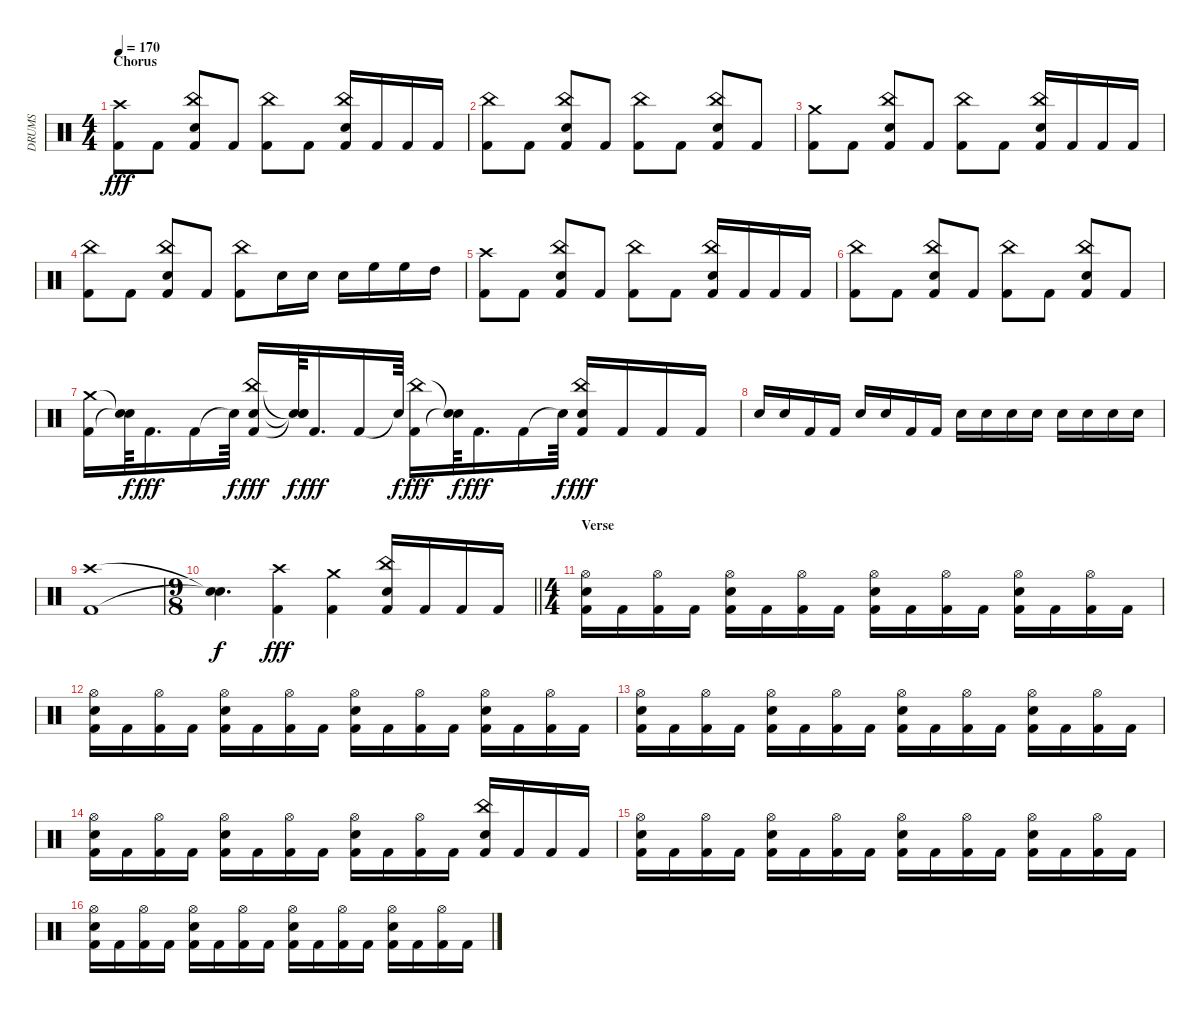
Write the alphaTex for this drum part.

\track ("DRUMS" "DRUMS") {instrument percussion}
\staff {score}
\articulation defaults
\ts (4 4)
\section ("" "Chorus")
\tempo 170
\clef neutral
\ks c
("Kick (hit) 2" "Crash high (hit)").8{dy fff} "Kick (hit) 2".8 ("Kick (hit) 2" "China (hit)" "Snare (hit) 2").8 "Kick (hit) 2".8 ("China (hit)" "Kick (hit) 2").8 "Kick (hit) 2".8 ("Kick (hit) 2" "China (hit)" "Snare (hit) 2").16 "Kick (hit) 2".16 "Kick (hit) 2".16 "Kick (hit) 2".16 |
("China (hit)" "Kick (hit) 2").8 "Kick (hit) 2".8 ("Kick (hit) 2" "China (hit)" "Snare (hit) 2").8 "Kick (hit) 2".8 ("China (hit)" "Kick (hit) 2").8 "Kick (hit) 2".8 ("Kick (hit) 2" "China (hit)" "Snare (hit) 2").8 "Kick (hit) 2".8 |
("Crash medium (hit)" "Kick (hit) 2").8 "Kick (hit) 2".8 ("China (hit)" "Snare (hit) 2" "Kick (hit) 2").8 "Kick (hit) 2".8 ("China (hit)" "Kick (hit) 2").8 "Kick (hit) 2".8 ("China (hit)" "Snare (hit) 2" "Kick (hit) 2").16 "Kick (hit) 2".16 "Kick (hit) 2".16 "Kick (hit) 2".16 |
("Kick (hit) 2" "China (hit)").8 "Kick (hit) 2".8 ("Kick (hit) 2" "Snare (hit) 2" "China (hit)").8 "Kick (hit) 2".8 ("Kick (hit) 2" "China (hit)").8 "Snare (hit) 2".16 "Snare (hit) 2".16 "Snare (hit) 2".16 "High Floor Tom (hit)".16 "High Floor Tom (hit)".16 "High Tom (hit)".16 |
("Crash high (hit)" "Kick (hit) 2").8 "Kick (hit) 2".8 ("Snare (hit) 2" "Kick (hit) 2" "China (hit)").8 "Kick (hit) 2".8 ("Kick (hit) 2" "China (hit)").8 "Kick (hit) 2".8 ("China (hit)" "Kick (hit) 2" "Snare (hit) 2").16 "Kick (hit) 2".16 "Kick (hit) 2".16 "Kick (hit) 2".16 |
("Kick (hit) 2" "China (hit)").8 "Kick (hit) 2".8 ("Snare (hit) 2" "Kick (hit) 2" "China (hit)").8 "Kick (hit) 2".8 ("China (hit)" "Kick (hit) 2").8 "Kick (hit) 2".8 ("China (hit)" "Kick (hit) 2" "Snare (hit) 2").8 "Kick (hit) 2".8 |
("Kick (hit) 2" "Crash medium (hit)").16 ("Snare (hit)"{t} "Snare (hit)"{t}).64{dy f} "Kick (hit) 2".16{d dy fff} "Kick (hit) 2".16 "Snare (hit)"{t}.64{dy f} ("China (hit)" "Snare (hit) 2" "Kick (hit) 2").16{dy fff} ("Snare (hit)"{t} "Snare (hit)"{t} "Snare (hit)"{t}).64{dy f} "Kick (hit) 2".16{d dy fff} "Kick (hit) 2".16 "Snare (hit)"{t}.64{dy f} ("China (hit)" "Kick (hit) 2").16{dy fff} ("Snare (hit)"{t} "Snare (hit)"{t}).64{dy f} "Kick (hit) 2".16{d dy fff} "Kick (hit) 2".16 "Snare (hit)"{t}.64{dy f} ("China (hit)" "Snare (hit) 2" "Kick (hit) 2").16{dy fff} "Kick (hit) 2".16 "Kick (hit) 2".16 "Kick (hit) 2".16 |
"Snare (hit) 2".16 "Snare (hit) 2".16 "Kick (hit) 2".16 "Kick (hit) 2".16 "Snare (hit) 2".16 "Snare (hit) 2".16 "Kick (hit) 2".16 "Kick (hit) 2".16 "Snare (hit) 2".16 "Snare (hit) 2".16 "Snare (hit) 2".16 "Snare (hit) 2".16 "Snare (hit) 2".16 "Snare (hit) 2".16 "Snare (hit) 2".16 "Snare (hit) 2".16 |
("Kick (hit) 2" "Crash high (hit)").1 |
\ts (9 8)
\barLineRight lightlight
("Snare (hit)"{t} "Snare (hit)"{t}).4{d dy f} ("Crash high (hit)" "Kick (hit) 2").4{dy fff} ("Kick (hit) 2" "Crash medium (hit)").4 ("Snare (hit) 2" "Kick (hit) 2" "China (hit)").16 "Kick (hit) 2".16 "Kick (hit) 2".16 "Kick (hit) 2".16 |
\ts (4 4)
\section ("" "Verse")
("Kick (hit) 2" "Snare (hit) 2" "Hi-Hat (open)").16 "Kick (hit) 2".16 ("Hi-Hat (open)" "Kick (hit) 2").16 "Kick (hit) 2".16 ("Hi-Hat (open)" "Snare (hit) 2" "Kick (hit) 2").16 "Kick (hit) 2".16 ("Hi-Hat (open)" "Kick (hit) 2").16 "Kick (hit) 2".16 ("Hi-Hat (open)" "Kick (hit) 2" "Snare (hit) 2").16 "Kick (hit) 2".16 ("Hi-Hat (open)" "Kick (hit) 2").16 "Kick (hit) 2".16 ("Kick (hit) 2" "Hi-Hat (open)" "Snare (hit) 2").16 "Kick (hit) 2".16 ("Hi-Hat (open)" "Kick (hit) 2").16 "Kick (hit) 2".16 |
("Kick (hit) 2" "Hi-Hat (open)" "Snare (hit) 2").16 "Kick (hit) 2".16 ("Hi-Hat (open)" "Kick (hit) 2").16 "Kick (hit) 2".16 ("Kick (hit) 2" "Snare (hit) 2" "Hi-Hat (open)").16 "Kick (hit) 2".16 ("Hi-Hat (open)" "Kick (hit) 2").16 "Kick (hit) 2".16 ("Snare (hit) 2" "Kick (hit) 2" "Hi-Hat (open)").16 "Kick (hit) 2".16 ("Hi-Hat (open)" "Kick (hit) 2").16 "Kick (hit) 2".16 ("Hi-Hat (open)" "Kick (hit) 2" "Snare (hit) 2").16 "Kick (hit) 2".16 ("Kick (hit) 2" "Hi-Hat (open)").16 "Kick (hit) 2".16 |
("Kick (hit) 2" "Snare (hit) 2" "Hi-Hat (open)").16 "Kick (hit) 2".16 ("Kick (hit) 2" "Hi-Hat (open)").16 "Kick (hit) 2".16 ("Snare (hit) 2" "Hi-Hat (open)" "Kick (hit) 2").16 "Kick (hit) 2".16 ("Kick (hit) 2" "Hi-Hat (open)").16 "Kick (hit) 2".16 ("Snare (hit) 2" "Kick (hit) 2" "Hi-Hat (open)").16 "Kick (hit) 2".16 ("Kick (hit) 2" "Hi-Hat (open)").16 "Kick (hit) 2".16 ("Kick (hit) 2" "Snare (hit) 2" "Hi-Hat (open)").16 "Kick (hit) 2".16 ("Hi-Hat (open)" "Kick (hit) 2").16 "Kick (hit) 2".16 |
("Kick (hit) 2" "Hi-Hat (open)" "Snare (hit) 2").16 "Kick (hit) 2".16 ("Kick (hit) 2" "Hi-Hat (open)").16 "Kick (hit) 2".16 ("Snare (hit) 2" "Kick (hit) 2" "Hi-Hat (open)").16 "Kick (hit) 2".16 ("Kick (hit) 2" "Hi-Hat (open)").16 "Kick (hit) 2".16 ("Kick (hit) 2" "Hi-Hat (open)" "Snare (hit) 2").16 "Kick (hit) 2".16 ("Kick (hit) 2" "Hi-Hat (open)").16 "Kick (hit) 2".16 ("China (hit)" "Kick (hit) 2" "Snare (hit) 2").16 "Kick (hit) 2".16 "Kick (hit) 2".16 "Kick (hit) 2".16 |
("Snare (hit) 2" "Kick (hit) 2" "Hi-Hat (open)").16 "Kick (hit) 2".16 ("Hi-Hat (open)" "Kick (hit) 2").16 "Kick (hit) 2".16 ("Snare (hit) 2" "Kick (hit) 2" "Hi-Hat (open)").16 "Kick (hit) 2".16 ("Kick (hit) 2" "Hi-Hat (open)").16 "Kick (hit) 2".16 ("Hi-Hat (open)" "Kick (hit) 2" "Snare (hit) 2").16 "Kick (hit) 2".16 ("Hi-Hat (open)" "Kick (hit) 2").16 "Kick (hit) 2".16 ("Kick (hit) 2" "Snare (hit) 2" "Hi-Hat (open)").16 "Kick (hit) 2".16 ("Kick (hit) 2" "Hi-Hat (open)").16 "Kick (hit) 2".16 |
("Hi-Hat (open)" "Kick (hit) 2" "Snare (hit) 2").16 "Kick (hit) 2".16 ("Kick (hit) 2" "Hi-Hat (open)").16 "Kick (hit) 2".16 ("Kick (hit) 2" "Snare (hit) 2" "Hi-Hat (open)").16 "Kick (hit) 2".16 ("Kick (hit) 2" "Hi-Hat (open)").16 "Kick (hit) 2".16 ("Hi-Hat (open)" "Kick (hit) 2" "Snare (hit) 2").16 "Kick (hit) 2".16 ("Kick (hit) 2" "Hi-Hat (open)").16 "Kick (hit) 2".16 ("Kick (hit) 2" "Snare (hit) 2" "Hi-Hat (open)").16 "Kick (hit) 2".16 ("Kick (hit) 2" "Hi-Hat (open)").16 "Kick (hit) 2".16
